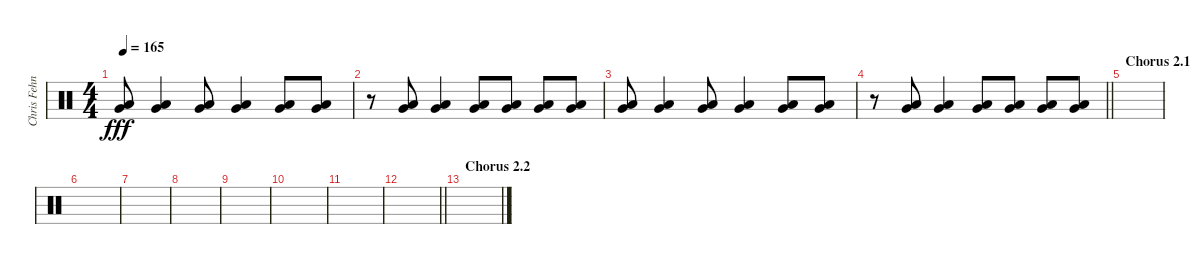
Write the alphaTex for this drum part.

\track ("Chris Fehn" "Chris Fehn") {instrument percussion}
\staff {score}
\articulation defaults
\ts (4 4)
\tempo 165
\clef neutral
\ks c
("Very Low Tom (hit)" "Low Floor Tom (hit)").8{dy fff} ("Very Low Tom (hit)" "Low Floor Tom (hit)").4 ("Very Low Tom (hit)" "Low Floor Tom (hit)").8 ("Very Low Tom (hit)" "Low Floor Tom (hit)").4 ("Very Low Tom (hit)" "Low Floor Tom (hit)").8 ("Very Low Tom (hit)" "Low Floor Tom (hit)").8 |
r.8 ("Very Low Tom (hit)" "Low Floor Tom (hit)").8 ("Very Low Tom (hit)" "Low Floor Tom (hit)").4 ("Very Low Tom (hit)" "Low Floor Tom (hit)").8 ("Very Low Tom (hit)" "Low Floor Tom (hit)").8 ("Very Low Tom (hit)" "Low Floor Tom (hit)").8 ("Very Low Tom (hit)" "Low Floor Tom (hit)").8 |
("Very Low Tom (hit)" "Low Floor Tom (hit)").8 ("Very Low Tom (hit)" "Low Floor Tom (hit)").4 ("Very Low Tom (hit)" "Low Floor Tom (hit)").8 ("Very Low Tom (hit)" "Low Floor Tom (hit)").4 ("Very Low Tom (hit)" "Low Floor Tom (hit)").8 ("Very Low Tom (hit)" "Low Floor Tom (hit)").8 |
\barLineRight lightlight
r.8 ("Very Low Tom (hit)" "Low Floor Tom (hit)").8 ("Very Low Tom (hit)" "Low Floor Tom (hit)").4 ("Very Low Tom (hit)" "Low Floor Tom (hit)").8 ("Very Low Tom (hit)" "Low Floor Tom (hit)").8 ("Very Low Tom (hit)" "Low Floor Tom (hit)").8 ("Very Low Tom (hit)" "Low Floor Tom (hit)").8 |
\section ("" "Chorus 2.1")
|
|
|
|
|
|
|
\barLineRight lightlight
|
\section ("" "Chorus 2.2")
